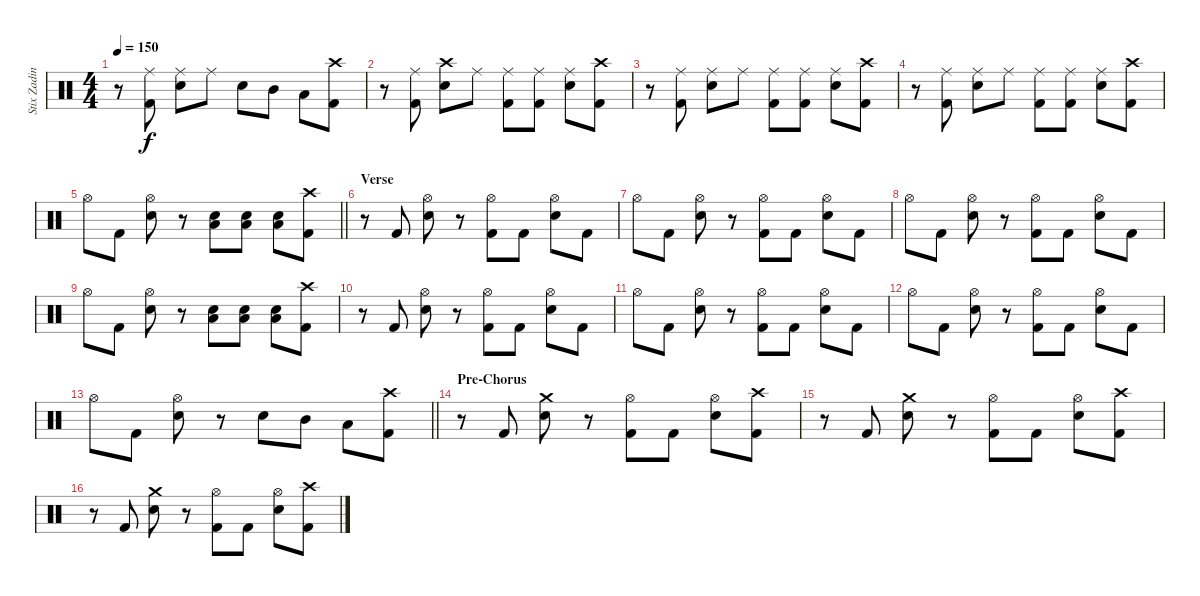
\track ("Stix Zadinia" "Stix Zadin") {instrument percussion}
\staff {score}
\articulation defaults
\ts (4 4)
\tempo 150
\clef neutral
\ks c
r.8{dy f} ("Ride (middle)" "Kick (hit) 2").8 ("Ride (middle)" "Electric Snare (hit)").8 "Ride (middle)".8 "Electric Snare (hit)".8 "Mid Tom (hit)".8 "Low Tom (hit)".8 ("Crash high (hit)" "Kick (hit) 2").8 |
r.8 ("Ride (middle)" "Kick (hit) 2").8 ("Crash high (hit)" "Electric Snare (hit)").8 "Ride (middle)".8 ("Ride (middle)" "Kick (hit) 2").8 ("Ride (middle)" "Kick (hit) 2").8 ("Ride (middle)" "Electric Snare (hit)").8 ("Crash high (hit)" "Kick (hit) 2").8 |
r.8 ("Ride (middle)" "Kick (hit) 2").8 ("Ride (middle)" "Electric Snare (hit)").8 "Ride (middle)".8 ("Ride (middle)" "Kick (hit) 2").8 ("Ride (middle)" "Kick (hit) 2").8 ("Ride (middle)" "Electric Snare (hit)").8 ("Crash high (hit)" "Kick (hit) 2").8 |
r.8 ("Ride (middle)" "Kick (hit) 2").8 ("Ride (middle)" "Electric Snare (hit)").8 "Ride (middle)".8 ("Ride (middle)" "Kick (hit) 2").8 ("Ride (middle)" "Kick (hit) 2").8 ("Ride (middle)" "Electric Snare (hit)").8 ("Crash high (hit)" "Kick (hit) 2").8 |
\barLineRight lightlight "Hi-Hat (open)".8 "Kick (hit) 2".8
("Hi-Hat (open)" "Electric Snare (hit)").8 r.8 ("Electric Snare (hit)" "Low Floor Tom (hit)").8 ("Electric Snare (hit)" "Low Floor Tom (hit)").8 ("Electric Snare (hit)" "Low Floor Tom (hit)").8 ("Crash high (hit)" "Kick (hit) 2").8 |
\section ("" "Verse")
r.8 "Kick (hit) 2".8 ("Hi-Hat (open)" "Electric Snare (hit)").8 r.8 ("Hi-Hat (open)" "Kick (hit) 2").8 "Kick (hit) 2".8 ("Hi-Hat (open)" "Electric Snare (hit)").8 "Kick (hit) 2".8 |
"Hi-Hat (open)".8 "Kick (hit) 2".8 ("Hi-Hat (open)" "Electric Snare (hit)").8 r.8 ("Hi-Hat (open)" "Kick (hit) 2").8 "Kick (hit) 2".8 ("Hi-Hat (open)" "Electric Snare (hit)").8 "Kick (hit) 2".8 |
"Hi-Hat (open)".8 "Kick (hit) 2".8 ("Hi-Hat (open)" "Electric Snare (hit)").8 r.8 ("Hi-Hat (open)" "Kick (hit) 2").8 "Kick (hit) 2".8 ("Hi-Hat (open)" "Electric Snare (hit)").8 "Kick (hit) 2".8 |
"Hi-Hat (open)".8 "Kick (hit) 2".8 ("Hi-Hat (open)" "Electric Snare (hit)").8 r.8 ("Low Floor Tom (hit)" "Electric Snare (hit)").8 ("Low Floor Tom (hit)" "Electric Snare (hit)").8 ("Low Floor Tom (hit)" "Electric Snare (hit)").8 ("Crash high (hit)" "Kick (hit) 2").8 |
r.8 "Kick (hit) 2".8 ("Hi-Hat (open)" "Electric Snare (hit)").8 r.8 ("Hi-Hat (open)" "Kick (hit) 2").8 "Kick (hit) 2".8 ("Hi-Hat (open)" "Electric Snare (hit)").8 "Kick (hit) 2".8 |
"Hi-Hat (open)".8 "Kick (hit) 2".8 ("Hi-Hat (open)" "Electric Snare (hit)").8 r.8 ("Hi-Hat (open)" "Kick (hit) 2").8 "Kick (hit) 2".8 ("Hi-Hat (open)" "Electric Snare (hit)").8 "Kick (hit) 2".8 |
"Hi-Hat (open)".8 "Kick (hit) 2".8 ("Hi-Hat (open)" "Electric Snare (hit)").8 r.8 ("Hi-Hat (open)" "Kick (hit) 2").8 "Kick (hit) 2".8 ("Hi-Hat (open)" "Electric Snare (hit)").8 "Kick (hit) 2".8 |
\barLineRight lightlight "Hi-Hat (open)".8 "Kick (hit) 2".8
("Hi-Hat (open)" "Electric Snare (hit)").8 r.8 "Electric Snare (hit)".8 "Mid Tom (hit)".8 "Low Tom (hit)".8 ("Crash high (hit)" "Kick (hit) 2").8 |
\section ("" "Pre-Chorus")
r.8 "Kick (hit) 2".8 ("Crash medium (hit)" "Electric Snare (hit)").8 r.8 ("Hi-Hat (open)" "Kick (hit) 2").8 "Kick (hit) 2".8 ("Hi-Hat (open)" "Electric Snare (hit)").8 ("Crash high (hit)" "Kick (hit) 2").8 |
r.8 "Kick (hit) 2".8 ("Crash medium (hit)" "Electric Snare (hit)").8 r.8 ("Hi-Hat (open)" "Kick (hit) 2").8 "Kick (hit) 2".8 ("Hi-Hat (open)" "Electric Snare (hit)").8 ("Crash high (hit)" "Kick (hit) 2").8 |
r.8 "Kick (hit) 2".8 ("Crash medium (hit)" "Electric Snare (hit)").8 r.8 ("Hi-Hat (open)" "Kick (hit) 2").8 "Kick (hit) 2".8 ("Hi-Hat (open)" "Electric Snare (hit)").8 ("Crash high (hit)" "Kick (hit) 2").8
